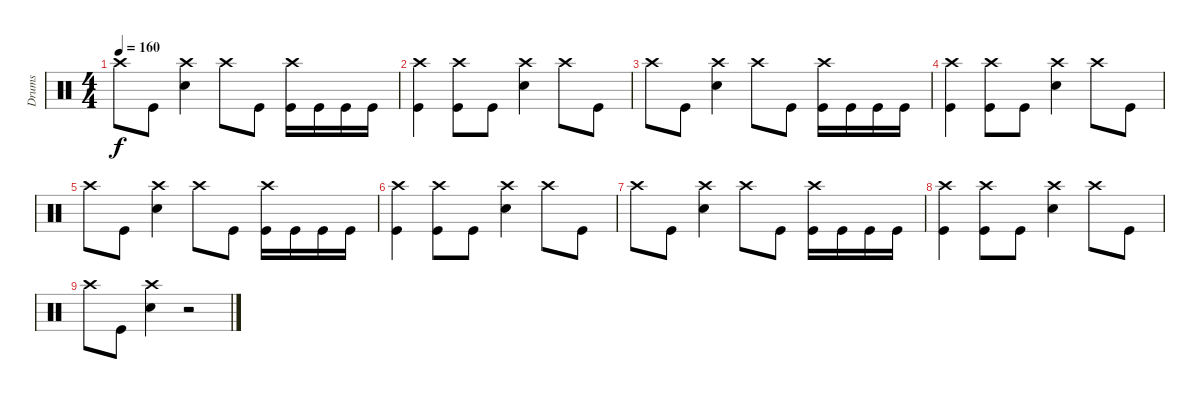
\track ("Drums" "Drums") {instrument percussion}
\staff {score}
\articulation defaults
\ts (4 4)
\tempo 160
\clef neutral
\ks c "Crash high (hit)".8{dy f} "Kick (hit)".8
("Snare (hit) 2" "Crash high (hit)").4 "Crash high (hit)".8 "Kick (hit)".8 ("Kick (hit)" "Crash high (hit)").16 "Kick (hit)".16 "Kick (hit)".16 "Kick (hit)".16 |
("Kick (hit)" "Crash high (hit)").4 ("Kick (hit)" "Crash high (hit)").8 "Kick (hit)".8 ("Crash high (hit)" "Snare (hit) 2").4 "Crash high (hit)".8 "Kick (hit)".8 |
"Crash high (hit)".8 "Kick (hit)".8 ("Snare (hit) 2" "Crash high (hit)").4 "Crash high (hit)".8 "Kick (hit)".8 ("Kick (hit)" "Crash high (hit)").16 "Kick (hit)".16 "Kick (hit)".16 "Kick (hit)".16 |
("Kick (hit)" "Crash high (hit)").4 ("Kick (hit)" "Crash high (hit)").8 "Kick (hit)".8 ("Crash high (hit)" "Snare (hit) 2").4 "Crash high (hit)".8 "Kick (hit)".8 |
"Crash high (hit)".8 "Kick (hit)".8 ("Snare (hit) 2" "Crash high (hit)").4 "Crash high (hit)".8 "Kick (hit)".8 ("Kick (hit)" "Crash high (hit)").16 "Kick (hit)".16 "Kick (hit)".16 "Kick (hit)".16 |
("Kick (hit)" "Crash high (hit)").4 ("Kick (hit)" "Crash high (hit)").8 "Kick (hit)".8 ("Crash high (hit)" "Snare (hit) 2").4 "Crash high (hit)".8 "Kick (hit)".8 |
"Crash high (hit)".8 "Kick (hit)".8 ("Snare (hit) 2" "Crash high (hit)").4 "Crash high (hit)".8 "Kick (hit)".8 ("Kick (hit)" "Crash high (hit)").16 "Kick (hit)".16 "Kick (hit)".16 "Kick (hit)".16 |
("Kick (hit)" "Crash high (hit)").4 ("Kick (hit)" "Crash high (hit)").8 "Kick (hit)".8 ("Crash high (hit)" "Snare (hit) 2").4 "Crash high (hit)".8 "Kick (hit)".8 |
"Crash high (hit)".8 "Kick (hit)".8 ("Snare (hit) 2" "Crash high (hit)").4 r.2
